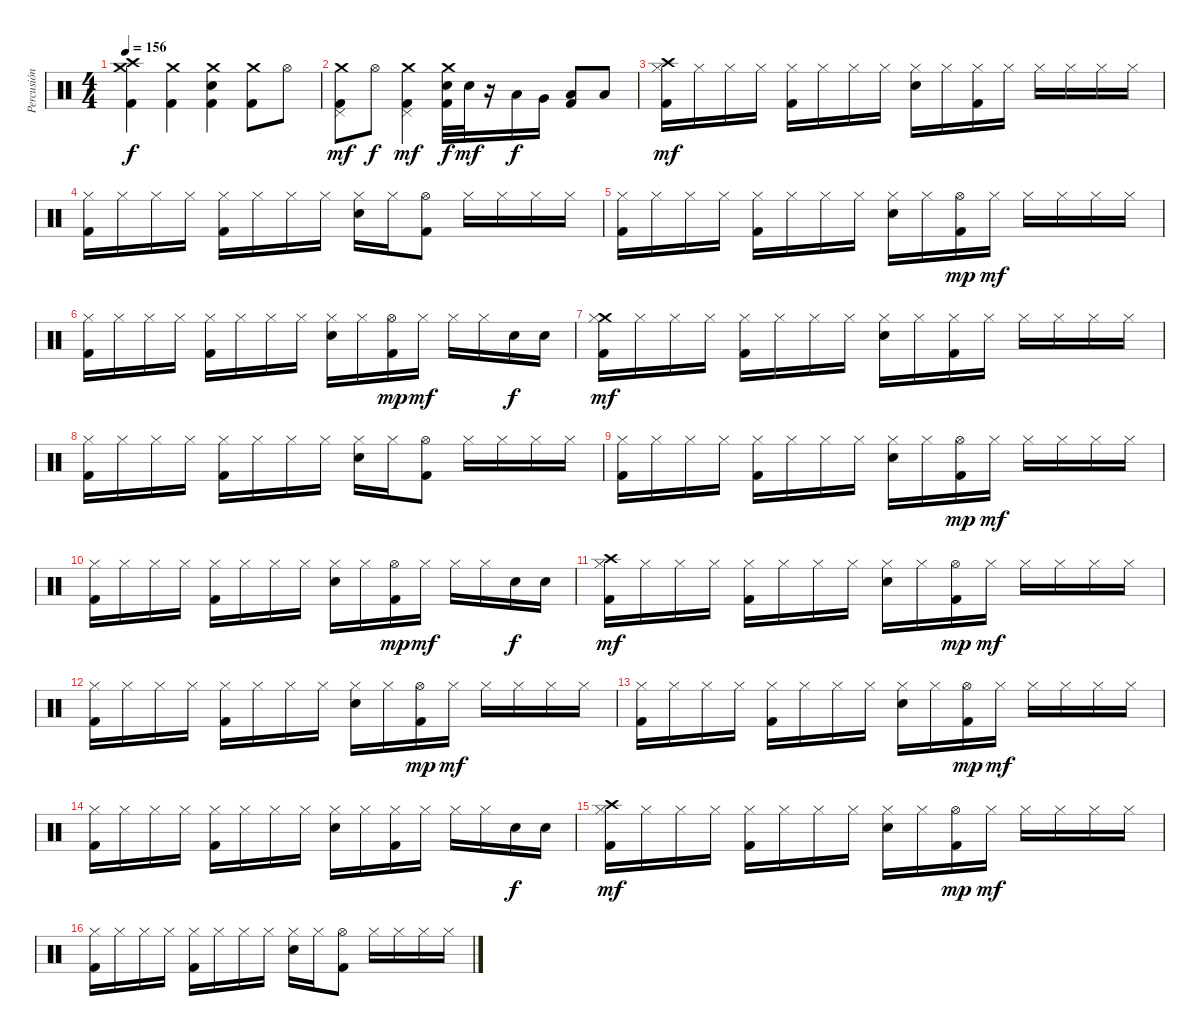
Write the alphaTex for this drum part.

\track ("Percusión" "Percusión") {instrument percussion}
\staff {score}
\articulation defaults
\ts (4 4)
\tempo 156
\clef neutral
\ks c
("Crash high (hit)" "Crash medium (hit)" "Kick (hit) 2").4{dy f} ("Crash medium (hit)" "Kick (hit) 2").4 ("Crash medium (hit)" "Kick (hit) 2" "Electric Snare (hit)").4 ("Crash medium (hit)" "Kick (hit) 2").8 "Hi-Hat (open)".8 |
("Crash medium (hit)" "Kick (hit) 2" "Pedal Hi-Hat (hit)").8{dy mf} "Hi-Hat (open)".8{dy f} ("Crash medium (hit)" "Kick (hit) 2" "Pedal Hi-Hat (hit)").4{dy mf} ("Crash medium (hit)" "Kick (hit) 2" "Electric Snare (hit)").32{dy f} "Electric Snare (hit)".32{dy mf} r.16 "Low Tom (hit)".16{dy f} "Very Low Tom (hit)".16 ("Low Floor Tom (hit)" "Kick (hit) 2").8 "Low Floor Tom (hit)".8 |
("Crash high (hit)" "Hi-Hat (closed)" "Kick (hit) 2").16{dy mf} "Hi-Hat (closed)".16 "Hi-Hat (closed)".16 "Hi-Hat (closed)".16 ("Hi-Hat (closed)" "Kick (hit) 2").16 "Hi-Hat (closed)".16 "Hi-Hat (closed)".16 "Hi-Hat (closed)".16 ("Hi-Hat (closed)" "Electric Snare (hit)").16 "Hi-Hat (closed)".16 ("Hi-Hat (closed)" "Kick (hit) 2").16 "Hi-Hat (closed)".16 "Hi-Hat (closed)".16 "Hi-Hat (closed)".16 "Hi-Hat (closed)".16 "Hi-Hat (closed)".16 |
("Hi-Hat (closed)" "Kick (hit) 2").16 "Hi-Hat (closed)".16 "Hi-Hat (closed)".16 "Hi-Hat (closed)".16 ("Hi-Hat (closed)" "Kick (hit) 2").16 "Hi-Hat (closed)".16 "Hi-Hat (closed)".16 "Hi-Hat (closed)".16 ("Hi-Hat (closed)" "Electric Snare (hit)").16 "Hi-Hat (closed)".16 ("Hi-Hat (open)" "Kick (hit) 2").8 "Hi-Hat (closed)".16 "Hi-Hat (closed)".16 "Hi-Hat (closed)".16 "Hi-Hat (closed)".16 |
("Hi-Hat (closed)" "Kick (hit) 2").16 "Hi-Hat (closed)".16 "Hi-Hat (closed)".16 "Hi-Hat (closed)".16 ("Hi-Hat (closed)" "Kick (hit) 2").16 "Hi-Hat (closed)".16 "Hi-Hat (closed)".16 "Hi-Hat (closed)".16 ("Hi-Hat (closed)" "Electric Snare (hit)").16 "Hi-Hat (closed)".16 ("Hi-Hat (open)" "Kick (hit) 2").16{dy mp} "Hi-Hat (closed)".16{dy mf} "Hi-Hat (closed)".16 "Hi-Hat (closed)".16 "Hi-Hat (closed)".16 "Hi-Hat (closed)".16 |
("Hi-Hat (closed)" "Kick (hit) 2").16 "Hi-Hat (closed)".16 "Hi-Hat (closed)".16 "Hi-Hat (closed)".16 ("Hi-Hat (closed)" "Kick (hit) 2").16 "Hi-Hat (closed)".16 "Hi-Hat (closed)".16 "Hi-Hat (closed)".16 ("Hi-Hat (closed)" "Electric Snare (hit)").16 "Hi-Hat (closed)".16 ("Hi-Hat (open)" "Kick (hit) 2").16{dy mp} "Hi-Hat (closed)".16{dy mf} "Hi-Hat (closed)".16 "Hi-Hat (closed)".16 "Electric Snare (hit)".16{dy f} "Electric Snare (hit)".16 |
("Crash medium (hit)" "Hi-Hat (closed)" "Kick (hit) 2").16{dy mf} "Hi-Hat (closed)".16 "Hi-Hat (closed)".16 "Hi-Hat (closed)".16 ("Hi-Hat (closed)" "Kick (hit) 2").16 "Hi-Hat (closed)".16 "Hi-Hat (closed)".16 "Hi-Hat (closed)".16 ("Hi-Hat (closed)" "Electric Snare (hit)").16 "Hi-Hat (closed)".16 ("Hi-Hat (closed)" "Kick (hit) 2").16 "Hi-Hat (closed)".16 "Hi-Hat (closed)".16 "Hi-Hat (closed)".16 "Hi-Hat (closed)".16 "Hi-Hat (closed)".16 |
("Hi-Hat (closed)" "Kick (hit) 2").16 "Hi-Hat (closed)".16 "Hi-Hat (closed)".16 "Hi-Hat (closed)".16 ("Hi-Hat (closed)" "Kick (hit) 2").16 "Hi-Hat (closed)".16 "Hi-Hat (closed)".16 "Hi-Hat (closed)".16 ("Hi-Hat (closed)" "Electric Snare (hit)").16 "Hi-Hat (closed)".16 ("Hi-Hat (open)" "Kick (hit) 2").8 "Hi-Hat (closed)".16 "Hi-Hat (closed)".16 "Hi-Hat (closed)".16 "Hi-Hat (closed)".16 |
("Hi-Hat (closed)" "Kick (hit) 2").16 "Hi-Hat (closed)".16 "Hi-Hat (closed)".16 "Hi-Hat (closed)".16 ("Hi-Hat (closed)" "Kick (hit) 2").16 "Hi-Hat (closed)".16 "Hi-Hat (closed)".16 "Hi-Hat (closed)".16 ("Hi-Hat (closed)" "Electric Snare (hit)").16 "Hi-Hat (closed)".16 ("Hi-Hat (open)" "Kick (hit) 2").16{dy mp} "Hi-Hat (closed)".16{dy mf} "Hi-Hat (closed)".16 "Hi-Hat (closed)".16 "Hi-Hat (closed)".16 "Hi-Hat (closed)".16 |
("Hi-Hat (closed)" "Kick (hit) 2").16 "Hi-Hat (closed)".16 "Hi-Hat (closed)".16 "Hi-Hat (closed)".16 ("Hi-Hat (closed)" "Kick (hit) 2").16 "Hi-Hat (closed)".16 "Hi-Hat (closed)".16 "Hi-Hat (closed)".16 ("Hi-Hat (closed)" "Electric Snare (hit)").16 "Hi-Hat (closed)".16 ("Hi-Hat (open)" "Kick (hit) 2").16{dy mp} "Hi-Hat (closed)".16{dy mf} "Hi-Hat (closed)".16 "Hi-Hat (closed)".16 "Electric Snare (hit)".16{dy f} "Electric Snare (hit)".16 |
("Crash high (hit)" "Hi-Hat (closed)" "Kick (hit) 2").16{dy mf} "Hi-Hat (closed)".16 "Hi-Hat (closed)".16 "Hi-Hat (closed)".16 ("Hi-Hat (closed)" "Kick (hit) 2").16 "Hi-Hat (closed)".16 "Hi-Hat (closed)".16 "Hi-Hat (closed)".16 ("Hi-Hat (closed)" "Electric Snare (hit)").16 "Hi-Hat (closed)".16 ("Hi-Hat (open)" "Kick (hit) 2").16{dy mp} "Hi-Hat (closed)".16{dy mf} "Hi-Hat (closed)".16 "Hi-Hat (closed)".16 "Hi-Hat (closed)".16 "Hi-Hat (closed)".16 |
("Hi-Hat (closed)" "Kick (hit) 2").16 "Hi-Hat (closed)".16 "Hi-Hat (closed)".16 "Hi-Hat (closed)".16 ("Hi-Hat (closed)" "Kick (hit) 2").16 "Hi-Hat (closed)".16 "Hi-Hat (closed)".16 "Hi-Hat (closed)".16 ("Hi-Hat (closed)" "Electric Snare (hit)").16 "Hi-Hat (closed)".16 ("Hi-Hat (open)" "Kick (hit) 2").16{dy mp} "Hi-Hat (closed)".16{dy mf} "Hi-Hat (closed)".16 "Hi-Hat (closed)".16 "Hi-Hat (closed)".16 "Hi-Hat (closed)".16 |
("Hi-Hat (closed)" "Kick (hit) 2").16 "Hi-Hat (closed)".16 "Hi-Hat (closed)".16 "Hi-Hat (closed)".16 ("Hi-Hat (closed)" "Kick (hit) 2").16 "Hi-Hat (closed)".16 "Hi-Hat (closed)".16 "Hi-Hat (closed)".16 ("Hi-Hat (closed)" "Electric Snare (hit)").16 "Hi-Hat (closed)".16 ("Hi-Hat (open)" "Kick (hit) 2").16{dy mp} "Hi-Hat (closed)".16{dy mf} "Hi-Hat (closed)".16 "Hi-Hat (closed)".16 "Hi-Hat (closed)".16 "Hi-Hat (closed)".16 |
("Hi-Hat (closed)" "Kick (hit) 2").16 "Hi-Hat (closed)".16 "Hi-Hat (closed)".16 "Hi-Hat (closed)".16 ("Hi-Hat (closed)" "Kick (hit) 2").16 "Hi-Hat (closed)".16 "Hi-Hat (closed)".16 "Hi-Hat (closed)".16 ("Hi-Hat (closed)" "Electric Snare (hit)").16 "Hi-Hat (closed)".16 ("Hi-Hat (closed)" "Kick (hit) 2").16 "Hi-Hat (closed)".16 "Hi-Hat (closed)".16 "Hi-Hat (closed)".16 "Electric Snare (hit)".16{dy f} "Electric Snare (hit)".16 |
("Crash high (hit)" "Hi-Hat (closed)" "Kick (hit) 2").16{dy mf} "Hi-Hat (closed)".16 "Hi-Hat (closed)".16 "Hi-Hat (closed)".16 ("Hi-Hat (closed)" "Kick (hit) 2").16 "Hi-Hat (closed)".16 "Hi-Hat (closed)".16 "Hi-Hat (closed)".16 ("Hi-Hat (closed)" "Electric Snare (hit)").16 "Hi-Hat (closed)".16 ("Hi-Hat (open)" "Kick (hit) 2").16{dy mp} "Hi-Hat (closed)".16{dy mf} "Hi-Hat (closed)".16 "Hi-Hat (closed)".16 "Hi-Hat (closed)".16 "Hi-Hat (closed)".16 |
("Hi-Hat (closed)" "Kick (hit) 2").16 "Hi-Hat (closed)".16 "Hi-Hat (closed)".16 "Hi-Hat (closed)".16 ("Hi-Hat (closed)" "Kick (hit) 2").16 "Hi-Hat (closed)".16 "Hi-Hat (closed)".16 "Hi-Hat (closed)".16 ("Hi-Hat (closed)" "Electric Snare (hit)").16 "Hi-Hat (closed)".16 ("Hi-Hat (open)" "Kick (hit) 2").8 "Hi-Hat (closed)".16 "Hi-Hat (closed)".16 "Hi-Hat (closed)".16 "Hi-Hat (closed)".16
